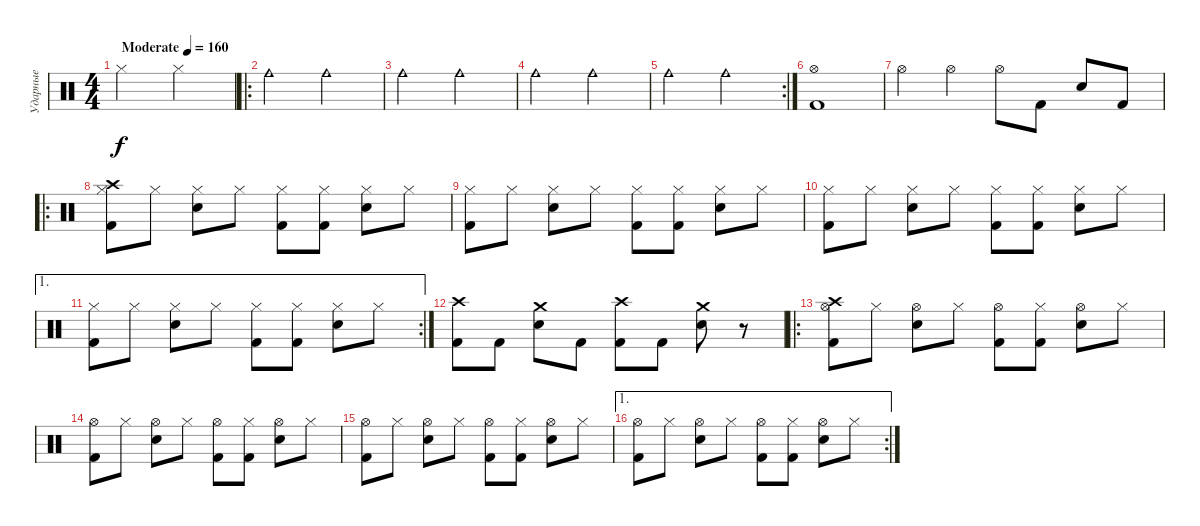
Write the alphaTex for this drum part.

\track ("Ударные" "Ударные") {instrument percussion}
\staff {score}
\articulation defaults
\ts (4 4)
\tempo (160 "Moderate")
\clef neutral
\ks c "Hi-Hat (closed)".2{dy f} "Hi-Hat (closed)".2
|
\ro "Cowbell medium (hit)".2 "Cowbell medium (hit)".2
|
"Cowbell medium (hit)".2 "Cowbell medium (hit)".2 |
"Cowbell medium (hit)".2 "Cowbell medium (hit)".2 |
\rc 2 "Cowbell medium (hit)".2 "Cowbell medium (hit)".2
|
("Hi-Hat (open)" "Kick (hit) 2").1 |
"Hi-Hat (open)".4 "Hi-Hat (open)".4 "Hi-Hat (open)".8 "Kick (hit) 2".8 "Snare (hit) 2".8 "Kick (hit) 2".8 |
\ro
("Kick (hit) 2" "Hi-Hat (closed)" "Crash high (hit)").8 "Hi-Hat (closed)".8 ("Snare (hit) 2" "Hi-Hat (closed)").8 "Hi-Hat (closed)".8 ("Kick (hit) 2" "Hi-Hat (closed)").8 ("Kick (hit) 2" "Hi-Hat (closed)").8 ("Snare (hit) 2" "Hi-Hat (closed)").8 "Hi-Hat (closed)".8 |
("Kick (hit) 2" "Hi-Hat (closed)").8 "Hi-Hat (closed)".8 ("Snare (hit) 2" "Hi-Hat (closed)").8 "Hi-Hat (closed)".8 ("Kick (hit) 2" "Hi-Hat (closed)").8 ("Kick (hit) 2" "Hi-Hat (closed)").8 ("Snare (hit) 2" "Hi-Hat (closed)").8 "Hi-Hat (closed)".8 |
("Kick (hit) 2" "Hi-Hat (closed)").8 "Hi-Hat (closed)".8 ("Snare (hit) 2" "Hi-Hat (closed)").8 "Hi-Hat (closed)".8 ("Kick (hit) 2" "Hi-Hat (closed)").8 ("Kick (hit) 2" "Hi-Hat (closed)").8 ("Snare (hit) 2" "Hi-Hat (closed)").8 "Hi-Hat (closed)".8 |
\ae 1
\rc 2
("Kick (hit) 2" "Hi-Hat (closed)").8 "Hi-Hat (closed)".8 ("Snare (hit) 2" "Hi-Hat (closed)").8 "Hi-Hat (closed)".8 ("Kick (hit) 2" "Hi-Hat (closed)").8 ("Kick (hit) 2" "Hi-Hat (closed)").8 ("Snare (hit) 2" "Hi-Hat (closed)").8 "Hi-Hat (closed)".8 |
("Kick (hit) 2" "Crash high (hit)").8 "Kick (hit) 2".8 ("Snare (hit) 2" "Crash medium (hit)").8 "Kick (hit) 2".8 ("Kick (hit) 2" "Crash high (hit)").8 "Kick (hit) 2".8 ("Snare (hit) 2" "Crash medium (hit)").8 r.8 |
\ro
("Kick (hit) 2" "Hi-Hat (open)" "Crash high (hit)").8 "Hi-Hat (closed)".8 ("Snare (hit) 2" "Hi-Hat (open)").8 "Hi-Hat (closed)".8 ("Kick (hit) 2" "Hi-Hat (open)").8 ("Kick (hit) 2" "Hi-Hat (closed)").8 ("Snare (hit) 2" "Hi-Hat (open)").8 "Hi-Hat (closed)".8 |
("Kick (hit) 2" "Hi-Hat (open)").8 "Hi-Hat (closed)".8 ("Snare (hit) 2" "Hi-Hat (open)").8 "Hi-Hat (closed)".8 ("Kick (hit) 2" "Hi-Hat (open)").8 ("Kick (hit) 2" "Hi-Hat (closed)").8 ("Snare (hit) 2" "Hi-Hat (open)").8 "Hi-Hat (closed)".8 |
("Kick (hit) 2" "Hi-Hat (open)").8 "Hi-Hat (closed)".8 ("Snare (hit) 2" "Hi-Hat (open)").8 "Hi-Hat (closed)".8 ("Kick (hit) 2" "Hi-Hat (open)").8 ("Kick (hit) 2" "Hi-Hat (closed)").8 ("Snare (hit) 2" "Hi-Hat (open)").8 "Hi-Hat (closed)".8 |
\ae 1
\rc 2
("Kick (hit) 2" "Hi-Hat (open)").8 "Hi-Hat (closed)".8 ("Snare (hit) 2" "Hi-Hat (open)").8 "Hi-Hat (closed)".8 ("Kick (hit) 2" "Hi-Hat (open)").8 ("Kick (hit) 2" "Hi-Hat (closed)").8 ("Snare (hit) 2" "Hi-Hat (open)").8 "Hi-Hat (closed)".8
